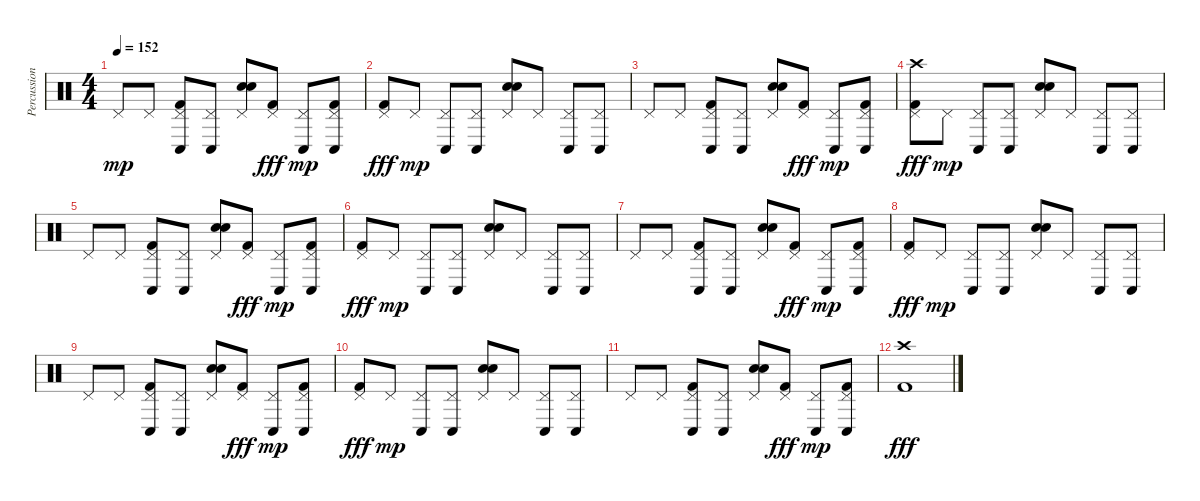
\track ("Percussion" "Percussion") {instrument percussion}
\staff {score}
\articulation defaults
\ts (4 4)
\tempo 152
\clef neutral
\ks c "Pedal Hi-Hat (hit)".8{dy mp} "Pedal Hi-Hat (hit)".8
("Pedal Hi-Hat (hit)" "Kick (hit) 2" "Conga low (hit)").8 ("Pedal Hi-Hat (hit)" "Conga low (hit)").8 ("Pedal Hi-Hat (hit)" "Electric Snare (hit)" "Hand Clap (hit)").8 ("Pedal Hi-Hat (hit)" "Kick (hit) 2").8{dy fff} ("Pedal Hi-Hat (hit)" "Conga low (hit)").8{dy mp} ("Pedal Hi-Hat (hit)" "Kick (hit) 2" "Conga low (hit)").8 |
("Pedal Hi-Hat (hit)" "Kick (hit) 2").8{dy fff} "Pedal Hi-Hat (hit)".8{dy mp} ("Pedal Hi-Hat (hit)" "Conga low (hit)").8 ("Pedal Hi-Hat (hit)" "Conga low (hit)").8 ("Pedal Hi-Hat (hit)" "Electric Snare (hit)" "Hand Clap (hit)").8 "Pedal Hi-Hat (hit)".8 ("Pedal Hi-Hat (hit)" "Conga low (hit)").8 ("Pedal Hi-Hat (hit)" "Conga low (hit)").8 |
"Pedal Hi-Hat (hit)".8 "Pedal Hi-Hat (hit)".8 ("Pedal Hi-Hat (hit)" "Kick (hit) 2" "Conga low (hit)").8 ("Pedal Hi-Hat (hit)" "Conga low (hit)").8 ("Pedal Hi-Hat (hit)" "Electric Snare (hit)" "Hand Clap (hit)").8 ("Pedal Hi-Hat (hit)" "Kick (hit) 2").8{dy fff} ("Pedal Hi-Hat (hit)" "Conga low (hit)").8{dy mp} ("Pedal Hi-Hat (hit)" "Kick (hit) 2" "Conga low (hit)").8 |
("Pedal Hi-Hat (hit)" "Kick (hit) 2" "Crash high (hit)").8{dy fff} "Pedal Hi-Hat (hit)".8{dy mp} ("Pedal Hi-Hat (hit)" "Conga low (hit)").8 ("Pedal Hi-Hat (hit)" "Conga low (hit)").8 ("Pedal Hi-Hat (hit)" "Electric Snare (hit)" "Hand Clap (hit)").8 "Pedal Hi-Hat (hit)".8 ("Pedal Hi-Hat (hit)" "Conga low (hit)").8 ("Pedal Hi-Hat (hit)" "Conga low (hit)").8 |
"Pedal Hi-Hat (hit)".8 "Pedal Hi-Hat (hit)".8 ("Pedal Hi-Hat (hit)" "Kick (hit) 2" "Conga low (hit)").8 ("Pedal Hi-Hat (hit)" "Conga low (hit)").8 ("Pedal Hi-Hat (hit)" "Electric Snare (hit)" "Hand Clap (hit)").8 ("Pedal Hi-Hat (hit)" "Kick (hit) 2").8{dy fff} ("Pedal Hi-Hat (hit)" "Conga low (hit)").8{dy mp} ("Pedal Hi-Hat (hit)" "Kick (hit) 2" "Conga low (hit)").8 |
("Pedal Hi-Hat (hit)" "Kick (hit) 2").8{dy fff} "Pedal Hi-Hat (hit)".8{dy mp} ("Pedal Hi-Hat (hit)" "Conga low (hit)").8 ("Pedal Hi-Hat (hit)" "Conga low (hit)").8 ("Pedal Hi-Hat (hit)" "Electric Snare (hit)" "Hand Clap (hit)").8 "Pedal Hi-Hat (hit)".8 ("Pedal Hi-Hat (hit)" "Conga low (hit)").8 ("Pedal Hi-Hat (hit)" "Conga low (hit)").8 |
"Pedal Hi-Hat (hit)".8 "Pedal Hi-Hat (hit)".8 ("Pedal Hi-Hat (hit)" "Kick (hit) 2" "Conga low (hit)").8 ("Pedal Hi-Hat (hit)" "Conga low (hit)").8 ("Pedal Hi-Hat (hit)" "Electric Snare (hit)" "Hand Clap (hit)").8 ("Pedal Hi-Hat (hit)" "Kick (hit) 2").8{dy fff} ("Pedal Hi-Hat (hit)" "Conga low (hit)").8{dy mp} ("Pedal Hi-Hat (hit)" "Kick (hit) 2" "Conga low (hit)").8 |
("Pedal Hi-Hat (hit)" "Kick (hit) 2").8{dy fff} "Pedal Hi-Hat (hit)".8{dy mp} ("Pedal Hi-Hat (hit)" "Conga low (hit)").8 ("Pedal Hi-Hat (hit)" "Conga low (hit)").8 ("Pedal Hi-Hat (hit)" "Electric Snare (hit)" "Hand Clap (hit)").8 "Pedal Hi-Hat (hit)".8 ("Pedal Hi-Hat (hit)" "Conga low (hit)").8 ("Pedal Hi-Hat (hit)" "Conga low (hit)").8 |
"Pedal Hi-Hat (hit)".8 "Pedal Hi-Hat (hit)".8 ("Pedal Hi-Hat (hit)" "Kick (hit) 2" "Conga low (hit)").8 ("Pedal Hi-Hat (hit)" "Conga low (hit)").8 ("Pedal Hi-Hat (hit)" "Electric Snare (hit)" "Hand Clap (hit)").8 ("Pedal Hi-Hat (hit)" "Kick (hit) 2").8{dy fff} ("Pedal Hi-Hat (hit)" "Conga low (hit)").8{dy mp} ("Pedal Hi-Hat (hit)" "Kick (hit) 2" "Conga low (hit)").8 |
("Pedal Hi-Hat (hit)" "Kick (hit) 2").8{dy fff} "Pedal Hi-Hat (hit)".8{dy mp} ("Pedal Hi-Hat (hit)" "Conga low (hit)").8 ("Pedal Hi-Hat (hit)" "Conga low (hit)").8 ("Pedal Hi-Hat (hit)" "Electric Snare (hit)" "Hand Clap (hit)").8 "Pedal Hi-Hat (hit)".8 ("Pedal Hi-Hat (hit)" "Conga low (hit)").8 ("Pedal Hi-Hat (hit)" "Conga low (hit)").8 |
"Pedal Hi-Hat (hit)".8 "Pedal Hi-Hat (hit)".8 ("Pedal Hi-Hat (hit)" "Kick (hit) 2" "Conga low (hit)").8 ("Pedal Hi-Hat (hit)" "Conga low (hit)").8 ("Pedal Hi-Hat (hit)" "Electric Snare (hit)" "Hand Clap (hit)").8 ("Pedal Hi-Hat (hit)" "Kick (hit) 2").8{dy fff} ("Pedal Hi-Hat (hit)" "Conga low (hit)").8{dy mp} ("Pedal Hi-Hat (hit)" "Kick (hit) 2" "Conga low (hit)").8 |
("Kick (hit) 2" "Crash high (hit)").1{dy fff}
